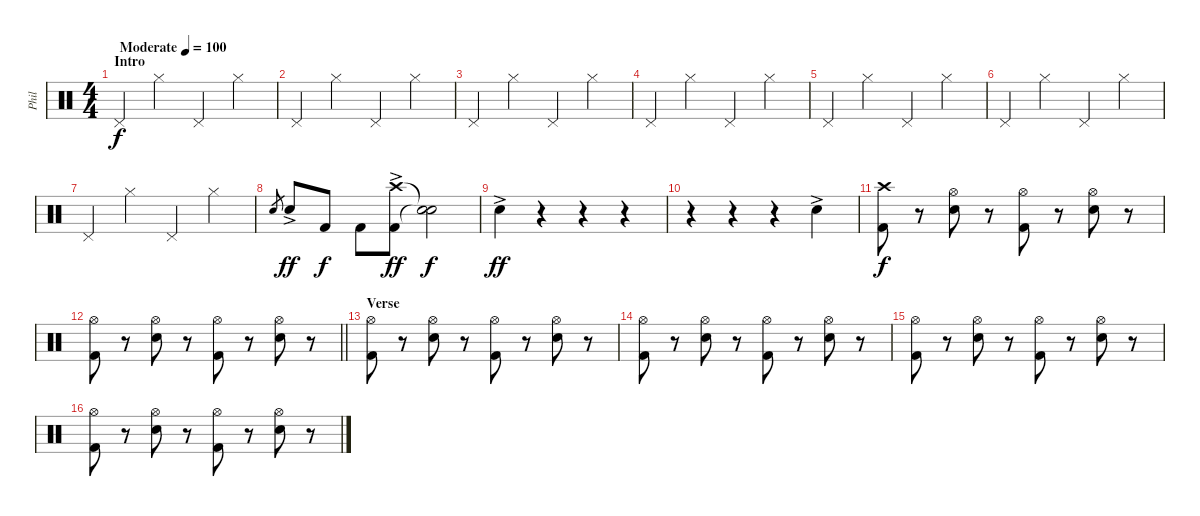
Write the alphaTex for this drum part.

\track ("Phil" "Phil") {instrument percussion}
\staff {score}
\articulation defaults
\ts (4 4)
\section ("" "Intro")
\tempo (100 "Moderate")
\clef neutral
\ks c "Pedal Hi-Hat (hit)".4{dy f} "Hi-Hat (closed)".4 "Pedal Hi-Hat (hit)".4 "Hi-Hat (closed)".4
|
"Pedal Hi-Hat (hit)".4 "Hi-Hat (closed)".4 "Pedal Hi-Hat (hit)".4 "Hi-Hat (closed)".4 |
"Pedal Hi-Hat (hit)".4 "Hi-Hat (closed)".4 "Pedal Hi-Hat (hit)".4 "Hi-Hat (closed)".4 |
"Pedal Hi-Hat (hit)".4 "Hi-Hat (closed)".4 "Pedal Hi-Hat (hit)".4 "Hi-Hat (closed)".4 |
"Pedal Hi-Hat (hit)".4 "Hi-Hat (closed)".4 "Pedal Hi-Hat (hit)".4 "Hi-Hat (closed)".4 |
"Pedal Hi-Hat (hit)".4 "Hi-Hat (closed)".4 "Pedal Hi-Hat (hit)".4 "Hi-Hat (closed)".4 |
"Pedal Hi-Hat (hit)".4 "Hi-Hat (closed)".4 "Pedal Hi-Hat (hit)".4 "Hi-Hat (closed)".4 |
"Electric Snare (hit)".8{gr} "Electric Snare (hit)"{ac}.8{dy ff} "Kick (hit) 2".8{dy f} "Kick (hit) 2".8 ("Crash high (hit)"{ac} "Kick (hit) 2").8{dy ff} ("Snare (hit)"{t} "Snare (hit)"{t}).2{dy f} |
"Electric Snare (hit)"{ac}.4{dy ff} r.4 r.4 r.4 |
r.4 r.4 r.4 "Electric Snare (hit)"{ac}.4 |
("Crash high (hit)" "Kick (hit) 2").8{dy f} r.8 ("Hi-Hat (open)" "Electric Snare (hit)").8 r.8 ("Hi-Hat (open)" "Kick (hit) 2").8 r.8 ("Hi-Hat (open)" "Electric Snare (hit)").8 r.8 |
\barLineRight lightlight
("Hi-Hat (open)" "Kick (hit) 2").8 r.8 ("Hi-Hat (open)" "Electric Snare (hit)").8 r.8 ("Hi-Hat (open)" "Kick (hit) 2").8 r.8 ("Hi-Hat (open)" "Electric Snare (hit)").8 r.8 |
\section ("" "Verse")
("Hi-Hat (open)" "Kick (hit) 2").8 r.8 ("Hi-Hat (open)" "Electric Snare (hit)").8 r.8 ("Hi-Hat (open)" "Kick (hit) 2").8 r.8 ("Hi-Hat (open)" "Electric Snare (hit)").8 r.8 |
("Hi-Hat (open)" "Kick (hit) 2").8 r.8 ("Hi-Hat (open)" "Electric Snare (hit)").8 r.8 ("Hi-Hat (open)" "Kick (hit) 2").8 r.8 ("Hi-Hat (open)" "Electric Snare (hit)").8 r.8 |
("Hi-Hat (open)" "Kick (hit) 2").8 r.8 ("Hi-Hat (open)" "Electric Snare (hit)").8 r.8 ("Hi-Hat (open)" "Kick (hit) 2").8 r.8 ("Hi-Hat (open)" "Electric Snare (hit)").8 r.8 |
("Hi-Hat (open)" "Kick (hit) 2").8 r.8 ("Hi-Hat (open)" "Electric Snare (hit)").8 r.8 ("Hi-Hat (open)" "Kick (hit) 2").8 r.8 ("Hi-Hat (open)" "Electric Snare (hit)").8 r.8
